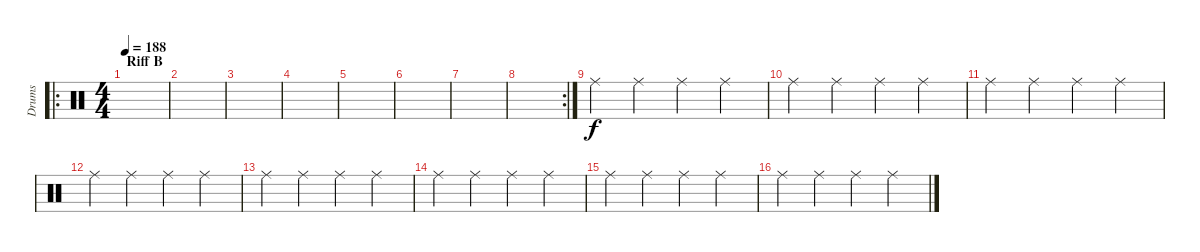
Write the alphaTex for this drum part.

\track ("Drums" "Drums") {instrument percussion}
\staff {score}
\articulation defaults
\ro
\ts (4 4)
\section ("" "Riff B")
\tempo 188
\clef neutral
\ks c
|
|
|
|
|
|
|
\rc 2
|
"Ride (middle)".4 "Ride (middle)".4 "Ride (middle)".4 "Ride (middle)".4 |
"Ride (middle)".4 "Ride (middle)".4 "Ride (middle)".4 "Ride (middle)".4 |
"Ride (middle)".4 "Ride (middle)".4 "Ride (middle)".4 "Ride (middle)".4 |
"Ride (middle)".4 "Ride (middle)".4 "Ride (middle)".4 "Ride (middle)".4 |
"Ride (middle)".4 "Ride (middle)".4 "Ride (middle)".4 "Ride (middle)".4 |
"Ride (middle)".4 "Ride (middle)".4 "Ride (middle)".4 "Ride (middle)".4 |
"Ride (middle)".4 "Ride (middle)".4 "Ride (middle)".4 "Ride (middle)".4 |
"Ride (middle)".4 "Ride (middle)".4 "Ride (middle)".4 "Ride (middle)".4
